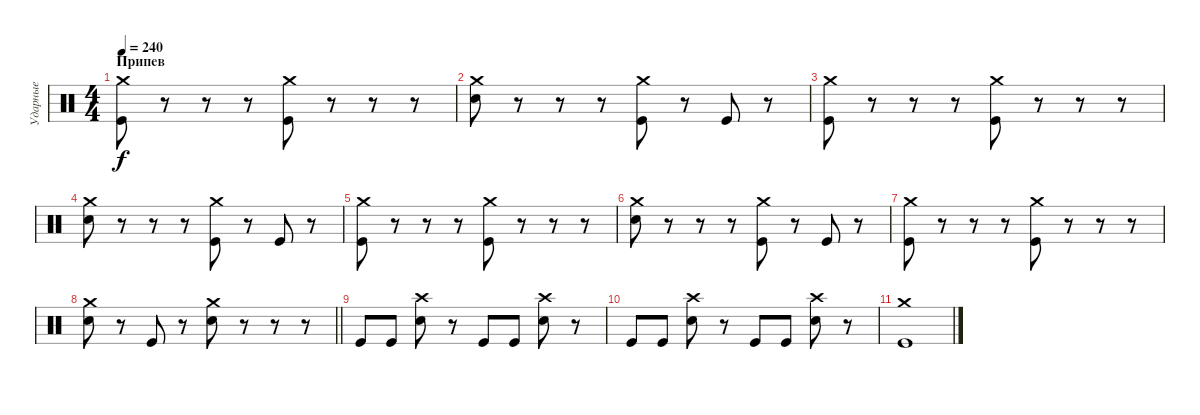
\track ("Ударные" "Ударные") {instrument percussion}
\staff {score}
\articulation defaults
\ts (4 4)
\section ("" "Припев")
\tempo 240
\clef neutral
\ks c
("Crash medium (hit)" "Kick (hit)").8{dy f} r.8 r.8 r.8 ("Crash medium (hit)" "Kick (hit)").8 r.8 r.8 r.8 |
("Crash medium (hit)" "Electric Snare (hit)").8 r.8 r.8 r.8 ("Crash medium (hit)" "Kick (hit)").8 r.8 "Kick (hit)".8 r.8 |
("Crash medium (hit)" "Kick (hit)").8 r.8 r.8 r.8 ("Crash medium (hit)" "Kick (hit)").8 r.8 r.8 r.8 |
("Crash medium (hit)" "Electric Snare (hit)").8 r.8 r.8 r.8 ("Crash medium (hit)" "Kick (hit)").8 r.8 "Kick (hit)".8 r.8 |
("Crash medium (hit)" "Kick (hit)").8 r.8 r.8 r.8 ("Crash medium (hit)" "Kick (hit)").8 r.8 r.8 r.8 |
("Crash medium (hit)" "Electric Snare (hit)").8 r.8 r.8 r.8 ("Crash medium (hit)" "Kick (hit)").8 r.8 "Kick (hit)".8 r.8 |
("Crash medium (hit)" "Kick (hit)").8 r.8 r.8 r.8 ("Crash medium (hit)" "Kick (hit)").8 r.8 r.8 r.8 |
\barLineRight lightlight
("Crash medium (hit)" "Electric Snare (hit)").8 r.8 "Kick (hit)".8 r.8 ("Crash medium (hit)" "Electric Snare (hit)").8 r.8 r.8 r.8 |
\section ("" " ")
"Kick (hit)".8 "Kick (hit)".8 ("Crash high (hit)" "Electric Snare (hit)").8 r.8 "Kick (hit)".8 "Kick (hit)".8 ("Crash high (hit)" "Electric Snare (hit)").8 r.8 |
"Kick (hit)".8 "Kick (hit)".8 ("Crash high (hit)" "Electric Snare (hit)").8 r.8 "Kick (hit)".8 "Kick (hit)".8 ("Crash high (hit)" "Electric Snare (hit)").8 r.8 |
("Crash medium (hit)" "Kick (hit)").1
